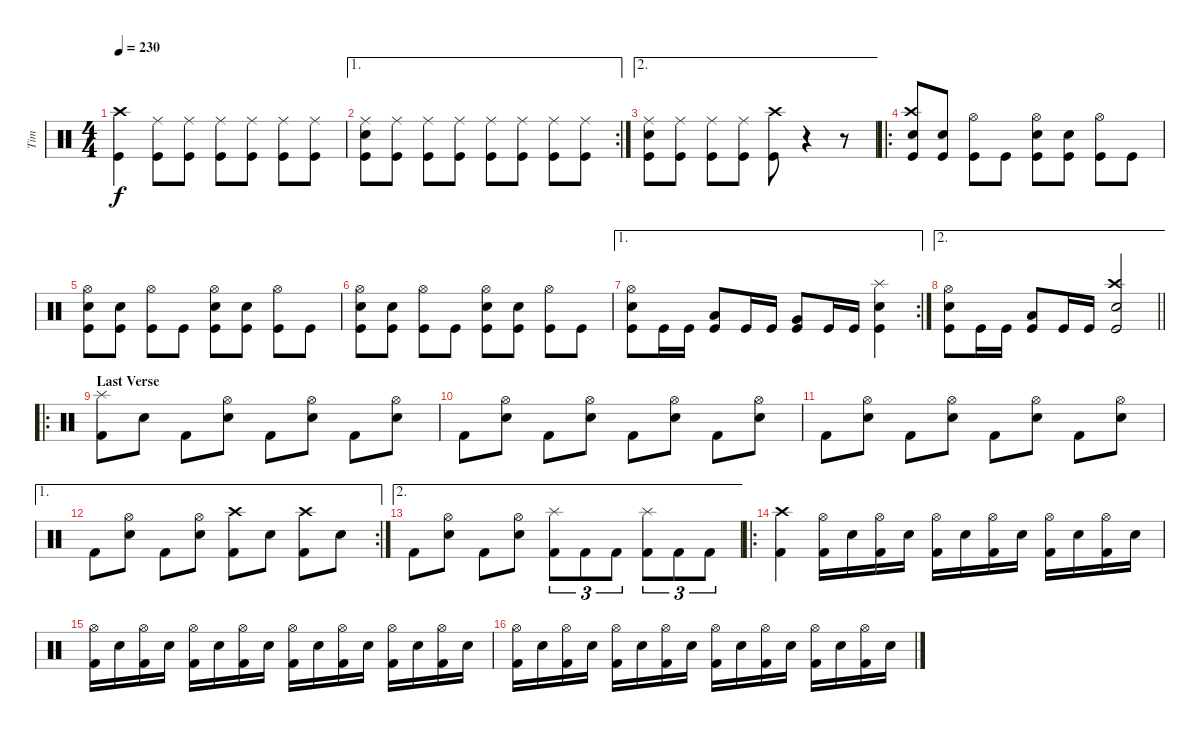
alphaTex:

\track ("Tim" "Tim") {instrument percussion}
\staff {score}
\articulation defaults
\ts (4 4)
\tempo 230
\clef neutral
\ks c
("Kick (hit)" "Crash high (hit)").4{dy f} ("Ride (middle)" "Kick (hit)").8 ("Ride (middle)" "Kick (hit)").8 ("Ride (middle)" "Kick (hit)").8 ("Ride (middle)" "Kick (hit)").8 ("Ride (middle)" "Kick (hit)").8 ("Ride (middle)" "Kick (hit)").8 |
\ae 1
\rc 2
("Ride (middle)" "Kick (hit)" "Snare (hit) 2").8 ("Ride (middle)" "Kick (hit)").8 ("Ride (middle)" "Kick (hit)").8 ("Ride (middle)" "Kick (hit)").8 ("Ride (middle)" "Kick (hit)").8 ("Ride (middle)" "Kick (hit)").8 ("Ride (middle)" "Kick (hit)").8 ("Ride (middle)" "Kick (hit)").8 |
\ae 2
("Ride (middle)" "Kick (hit)" "Snare (hit) 2").8 ("Ride (middle)" "Kick (hit)").8 ("Ride (middle)" "Kick (hit)").8 ("Ride (middle)" "Kick (hit)").8 ("Crash high (hit)" "Kick (hit)").8 r.4 r.8 |
\ro
("Kick (hit)" "Snare (hit) 2" "Crash high (hit)").8 ("Kick (hit)" "Snare (hit) 2").8 ("Kick (hit)" "Hi-Hat (open)").8 "Kick (hit)".8 ("Kick (hit)" "Hi-Hat (open)" "Snare (hit) 2").8 ("Kick (hit)" "Snare (hit) 2").8 ("Kick (hit)" "Hi-Hat (open)").8 "Kick (hit)".8 |
("Kick (hit)" "Snare (hit) 2" "Hi-Hat (open)").8 ("Kick (hit)" "Snare (hit) 2").8 ("Kick (hit)" "Hi-Hat (open)").8 "Kick (hit)".8 ("Kick (hit)" "Hi-Hat (open)" "Snare (hit) 2").8 ("Kick (hit)" "Snare (hit) 2").8 ("Kick (hit)" "Hi-Hat (open)").8 "Kick (hit)".8 |
("Kick (hit)" "Snare (hit) 2" "Hi-Hat (open)").8 ("Kick (hit)" "Snare (hit) 2").8 ("Kick (hit)" "Hi-Hat (open)").8 "Kick (hit)".8 ("Kick (hit)" "Hi-Hat (open)" "Snare (hit) 2").8 ("Kick (hit)" "Snare (hit) 2").8 ("Kick (hit)" "Hi-Hat (open)").8 "Kick (hit)".8 |
\ae 1
\rc 2
("Kick (hit)" "Snare (hit) 2" "Hi-Hat (open)").8 "Kick (hit)".16 "Kick (hit)".16 ("Kick (hit)" "Low Tom (hit)").8 "Kick (hit)".16 "Kick (hit)".16 ("Kick (hit)" "Very Low Tom (hit)").8 "Kick (hit)".16 "Kick (hit)".16 ("Kick (hit)" "Snare (hit) 2" "Splash (hit)").4 |
\ae 2
\barLineRight lightlight
("Kick (hit)" "Snare (hit) 2" "Hi-Hat (open)").8 "Kick (hit)".16 "Kick (hit)".16 ("Kick (hit)" "Low Tom (hit)").8 "Kick (hit)".16 "Kick (hit)".16 ("Kick (hit)" "Snare (hit) 2" "Crash high (hit)").2 |
\ro
\section ("" "Last Verse")
("Splash (hit)" "Kick (hit) 2").8 "Snare (hit) 2".8 "Kick (hit) 2".8 ("Hi-Hat (open)" "Snare (hit) 2").8 "Kick (hit) 2".8 ("Hi-Hat (open)" "Snare (hit) 2").8 "Kick (hit) 2".8 ("Hi-Hat (open)" "Snare (hit) 2").8 |
"Kick (hit) 2".8 ("Hi-Hat (open)" "Snare (hit) 2").8 "Kick (hit) 2".8 ("Hi-Hat (open)" "Snare (hit) 2").8 "Kick (hit) 2".8 ("Hi-Hat (open)" "Snare (hit) 2").8 "Kick (hit) 2".8 ("Hi-Hat (open)" "Snare (hit) 2").8 |
"Kick (hit) 2".8 ("Hi-Hat (open)" "Snare (hit) 2").8 "Kick (hit) 2".8 ("Hi-Hat (open)" "Snare (hit) 2").8 "Kick (hit) 2".8 ("Hi-Hat (open)" "Snare (hit) 2").8 "Kick (hit) 2".8 ("Hi-Hat (open)" "Snare (hit) 2").8 |
\ae 1
\rc 2 "Kick (hit) 2".8
("Hi-Hat (open)" "Snare (hit) 2").8 "Kick (hit) 2".8 ("Hi-Hat (open)" "Snare (hit) 2").8 ("Crash high (hit)" "Kick (hit) 2").8 "Snare (hit) 2".8 ("Crash high (hit)" "Kick (hit) 2").8 "Snare (hit) 2".8 |
\ae 2 "Kick (hit) 2".8
("Hi-Hat (open)" "Snare (hit) 2").8 "Kick (hit) 2".8 ("Hi-Hat (open)" "Snare (hit) 2").8 ("Splash (hit)" "Kick (hit) 2").8{tu (3 2)} "Kick (hit) 2".8{tu (3 2)} "Kick (hit) 2".8{tu (3 2)} ("Splash (hit)" "Kick (hit) 2").8{tu (3 2)} "Kick (hit) 2".8{tu (3 2)} "Kick (hit) 2".8{tu (3 2)} |
\ro
("Crash high (hit)" "Kick (hit) 2").4 ("Hi-Hat (open)" "Kick (hit) 2").16 "Snare (hit) 2".16 ("Hi-Hat (open)" "Kick (hit) 2").16 "Snare (hit) 2".16 ("Hi-Hat (open)" "Kick (hit) 2").16 "Snare (hit) 2".16 ("Hi-Hat (open)" "Kick (hit) 2").16 "Snare (hit) 2".16 ("Hi-Hat (open)" "Kick (hit) 2").16 "Snare (hit) 2".16 ("Hi-Hat (open)" "Kick (hit) 2").16 "Snare (hit) 2".16 |
("Hi-Hat (open)" "Kick (hit) 2").16 "Snare (hit) 2".16 ("Hi-Hat (open)" "Kick (hit) 2").16 "Snare (hit) 2".16 ("Hi-Hat (open)" "Kick (hit) 2").16 "Snare (hit) 2".16 ("Hi-Hat (open)" "Kick (hit) 2").16 "Snare (hit) 2".16 ("Hi-Hat (open)" "Kick (hit) 2").16 "Snare (hit) 2".16 ("Hi-Hat (open)" "Kick (hit) 2").16 "Snare (hit) 2".16 ("Hi-Hat (open)" "Kick (hit) 2").16 "Snare (hit) 2".16 ("Hi-Hat (open)" "Kick (hit) 2").16 "Snare (hit) 2".16 |
("Hi-Hat (open)" "Kick (hit) 2").16 "Snare (hit) 2".16 ("Hi-Hat (open)" "Kick (hit) 2").16 "Snare (hit) 2".16 ("Hi-Hat (open)" "Kick (hit) 2").16 "Snare (hit) 2".16 ("Hi-Hat (open)" "Kick (hit) 2").16 "Snare (hit) 2".16 ("Hi-Hat (open)" "Kick (hit) 2").16 "Snare (hit) 2".16 ("Hi-Hat (open)" "Kick (hit) 2").16 "Snare (hit) 2".16 ("Hi-Hat (open)" "Kick (hit) 2").16 "Snare (hit) 2".16 ("Hi-Hat (open)" "Kick (hit) 2").16 "Snare (hit) 2".16
